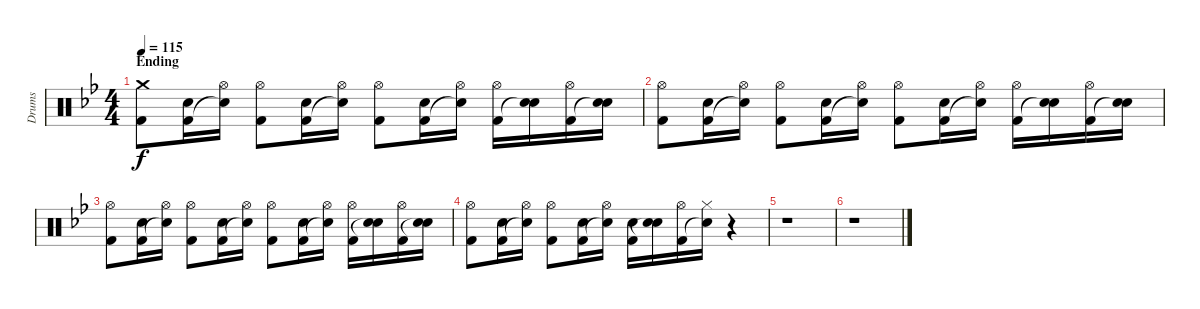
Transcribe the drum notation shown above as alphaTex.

\track ("Drums" "Drums") {instrument percussion}
\staff {score}
\articulation defaults
\ts (4 4)
\section ("" "Ending")
\tempo 115
\clef neutral
\ks bb
("Crash medium (hit)" "Kick (hit) 2").8{dy f} ("Electric Snare (hit)" "Kick (hit) 2").16 ("Hi-Hat (open)" "Snare (hit)"{t}).16 ("Hi-Hat (open)" "Kick (hit) 2").8 ("Electric Snare (hit)" "Kick (hit) 2").16 ("Hi-Hat (open)" "Snare (hit)"{t}).16 ("Hi-Hat (open)" "Kick (hit) 2").8 ("Electric Snare (hit)" "Kick (hit) 2").16 ("Hi-Hat (open)" "Snare (hit)"{t}).16 ("Hi-Hat (open)" "Kick (hit) 2").16 ("Electric Snare (hit)" "Snare (hit)"{t}).16 ("Hi-Hat (open)" "Kick (hit) 2").16 ("Electric Snare (hit)" "Snare (hit)"{t}).16 |
("Hi-Hat (open)" "Kick (hit) 2").8 ("Electric Snare (hit)" "Kick (hit) 2").16 ("Hi-Hat (open)" "Snare (hit)"{t}).16 ("Hi-Hat (open)" "Kick (hit) 2").8 ("Electric Snare (hit)" "Kick (hit) 2").16 ("Hi-Hat (open)" "Snare (hit)"{t}).16 ("Hi-Hat (open)" "Kick (hit) 2").8 ("Electric Snare (hit)" "Kick (hit) 2").16 ("Hi-Hat (open)" "Snare (hit)"{t}).16 ("Hi-Hat (open)" "Kick (hit) 2").16 ("Electric Snare (hit)" "Snare (hit)"{t}).16 ("Hi-Hat (open)" "Kick (hit) 2").16 ("Electric Snare (hit)" "Snare (hit)"{t}).16 |
("Hi-Hat (open)" "Kick (hit) 2").8 ("Electric Snare (hit)" "Kick (hit) 2").16 ("Hi-Hat (open)" "Snare (hit)"{t}).16 ("Hi-Hat (open)" "Kick (hit) 2").8 ("Electric Snare (hit)" "Kick (hit) 2").16 ("Hi-Hat (open)" "Snare (hit)"{t}).16 ("Hi-Hat (open)" "Kick (hit) 2").8 ("Electric Snare (hit)" "Kick (hit) 2").16 ("Hi-Hat (open)" "Snare (hit)"{t}).16 ("Hi-Hat (open)" "Kick (hit) 2").16 ("Electric Snare (hit)" "Snare (hit)"{t}).16 ("Hi-Hat (open)" "Kick (hit) 2").16 ("Electric Snare (hit)" "Snare (hit)"{t}).16 |
("Hi-Hat (open)" "Kick (hit) 2").8 ("Electric Snare (hit)" "Kick (hit) 2").16 ("Hi-Hat (open)" "Snare (hit)"{t}).16 ("Hi-Hat (open)" "Kick (hit) 2").8 ("Electric Snare (hit)" "Kick (hit) 2").16 ("Hi-Hat (open)" "Snare (hit)"{t}).16 ("Electric Snare (hit)" "Kick (hit) 2").16 ("Electric Snare (hit)" "Snare (hit)"{t}).16 ("Hi-Hat (open)" "Kick (hit) 2").16 ("Hi-Hat (closed)" "Snare (hit)"{t}).16 r.4 |
r.1 |
r.1
